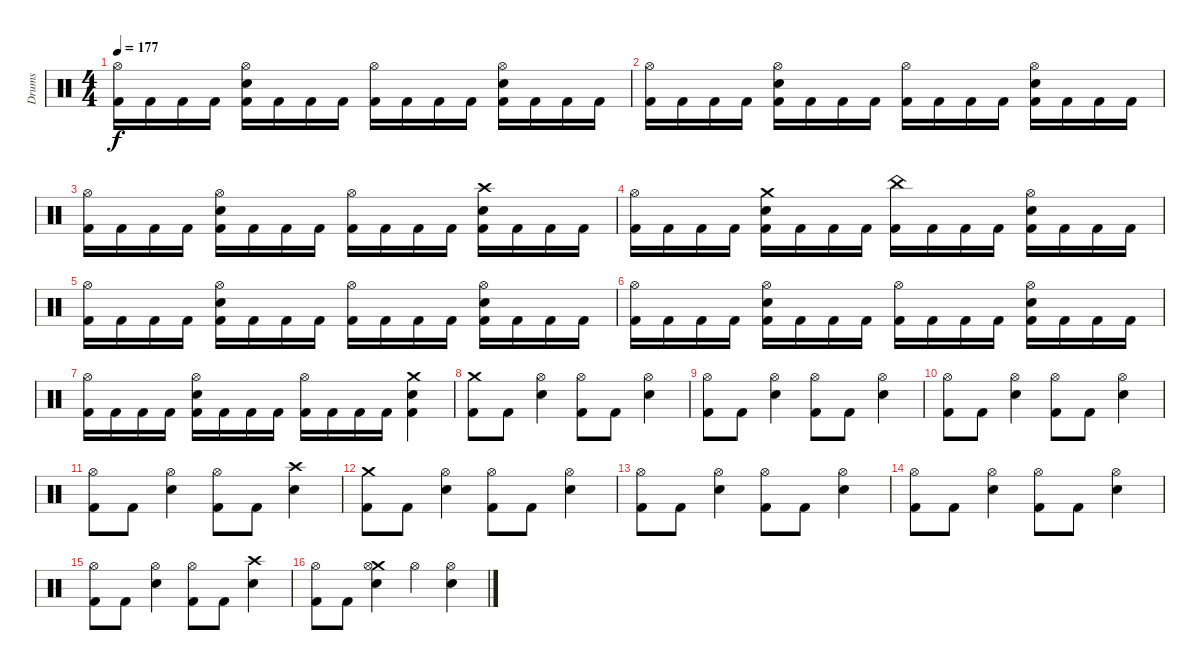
\track ("Drums" "Drums") {instrument percussion}
\staff {score}
\articulation defaults
\ts (4 4)
\tempo 177
\clef neutral
\ks c
("Hi-Hat (open)" "Kick (hit) 2").16{dy f} "Kick (hit) 2".16 "Kick (hit) 2".16 "Kick (hit) 2".16 ("Hi-Hat (open)" "Snare (hit) 2" "Kick (hit) 2").16 "Kick (hit) 2".16 "Kick (hit) 2".16 "Kick (hit) 2".16 ("Hi-Hat (open)" "Kick (hit) 2").16 "Kick (hit) 2".16 "Kick (hit) 2".16 "Kick (hit) 2".16 ("Hi-Hat (open)" "Snare (hit) 2" "Kick (hit) 2").16 "Kick (hit) 2".16 "Kick (hit) 2".16 "Kick (hit) 2".16 |
("Hi-Hat (open)" "Kick (hit) 2").16 "Kick (hit) 2".16 "Kick (hit) 2".16 "Kick (hit) 2".16 ("Hi-Hat (open)" "Snare (hit) 2" "Kick (hit) 2").16 "Kick (hit) 2".16 "Kick (hit) 2".16 "Kick (hit) 2".16 ("Hi-Hat (open)" "Kick (hit) 2").16 "Kick (hit) 2".16 "Kick (hit) 2".16 "Kick (hit) 2".16 ("Hi-Hat (open)" "Snare (hit) 2" "Kick (hit) 2").16 "Kick (hit) 2".16 "Kick (hit) 2".16 "Kick (hit) 2".16 |
("Hi-Hat (open)" "Kick (hit) 2").16 "Kick (hit) 2".16 "Kick (hit) 2".16 "Kick (hit) 2".16 ("Hi-Hat (open)" "Snare (hit) 2" "Kick (hit) 2").16 "Kick (hit) 2".16 "Kick (hit) 2".16 "Kick (hit) 2".16 ("Hi-Hat (open)" "Kick (hit) 2").16 "Kick (hit) 2".16 "Kick (hit) 2".16 "Kick (hit) 2".16 ("Crash high (hit)" "Snare (hit) 2" "Kick (hit) 2").16 "Kick (hit) 2".16 "Kick (hit) 2".16 "Kick (hit) 2".16 |
("Hi-Hat (open)" "Kick (hit) 2").16 "Kick (hit) 2".16 "Kick (hit) 2".16 "Kick (hit) 2".16 ("Crash medium (hit)" "Snare (hit) 2" "Kick (hit) 2").16 "Kick (hit) 2".16 "Kick (hit) 2".16 "Kick (hit) 2".16 ("China (hit)" "Kick (hit) 2").16 "Kick (hit) 2".16 "Kick (hit) 2".16 "Kick (hit) 2".16 ("Hi-Hat (open)" "Snare (hit) 2" "Kick (hit) 2").16 "Kick (hit) 2".16 "Kick (hit) 2".16 "Kick (hit) 2".16 |
("Hi-Hat (open)" "Kick (hit) 2").16 "Kick (hit) 2".16 "Kick (hit) 2".16 "Kick (hit) 2".16 ("Hi-Hat (open)" "Snare (hit) 2" "Kick (hit) 2").16 "Kick (hit) 2".16 "Kick (hit) 2".16 "Kick (hit) 2".16 ("Hi-Hat (open)" "Kick (hit) 2").16 "Kick (hit) 2".16 "Kick (hit) 2".16 "Kick (hit) 2".16 ("Hi-Hat (open)" "Snare (hit) 2" "Kick (hit) 2").16 "Kick (hit) 2".16 "Kick (hit) 2".16 "Kick (hit) 2".16 |
("Hi-Hat (open)" "Kick (hit) 2").16 "Kick (hit) 2".16 "Kick (hit) 2".16 "Kick (hit) 2".16 ("Hi-Hat (open)" "Snare (hit) 2" "Kick (hit) 2").16 "Kick (hit) 2".16 "Kick (hit) 2".16 "Kick (hit) 2".16 ("Hi-Hat (open)" "Kick (hit) 2").16 "Kick (hit) 2".16 "Kick (hit) 2".16 "Kick (hit) 2".16 ("Hi-Hat (open)" "Snare (hit) 2" "Kick (hit) 2").16 "Kick (hit) 2".16 "Kick (hit) 2".16 "Kick (hit) 2".16 |
("Hi-Hat (open)" "Kick (hit) 2").16 "Kick (hit) 2".16 "Kick (hit) 2".16 "Kick (hit) 2".16 ("Hi-Hat (open)" "Snare (hit) 2" "Kick (hit) 2").16 "Kick (hit) 2".16 "Kick (hit) 2".16 "Kick (hit) 2".16 ("Hi-Hat (open)" "Kick (hit) 2").16 "Kick (hit) 2".16 "Kick (hit) 2".16 "Kick (hit) 2".16 ("Crash medium (hit)" "Snare (hit) 2" "Kick (hit) 2").4 |
("Crash medium (hit)" "Kick (hit) 2").8 "Kick (hit) 2".8 ("Hi-Hat (open)" "Snare (hit) 2").4 ("Hi-Hat (open)" "Kick (hit) 2").8 "Kick (hit) 2".8 ("Hi-Hat (open)" "Snare (hit) 2").4 |
("Hi-Hat (open)" "Kick (hit) 2").8 "Kick (hit) 2".8 ("Hi-Hat (open)" "Snare (hit) 2").4 ("Hi-Hat (open)" "Kick (hit) 2").8 "Kick (hit) 2".8 ("Hi-Hat (open)" "Snare (hit) 2").4 |
("Hi-Hat (open)" "Kick (hit) 2").8 "Kick (hit) 2".8 ("Hi-Hat (open)" "Snare (hit) 2").4 ("Hi-Hat (open)" "Kick (hit) 2").8 "Kick (hit) 2".8 ("Hi-Hat (open)" "Snare (hit) 2").4 |
("Hi-Hat (open)" "Kick (hit) 2").8 "Kick (hit) 2".8 ("Hi-Hat (open)" "Snare (hit) 2").4 ("Hi-Hat (open)" "Kick (hit) 2").8 "Kick (hit) 2".8 ("Crash high (hit)" "Snare (hit) 2").4 |
("Crash medium (hit)" "Kick (hit) 2").8 "Kick (hit) 2".8 ("Hi-Hat (open)" "Snare (hit) 2").4 ("Hi-Hat (open)" "Kick (hit) 2").8 "Kick (hit) 2".8 ("Hi-Hat (open)" "Snare (hit) 2").4 |
("Hi-Hat (open)" "Kick (hit) 2").8 "Kick (hit) 2".8 ("Hi-Hat (open)" "Snare (hit) 2").4 ("Hi-Hat (open)" "Kick (hit) 2").8 "Kick (hit) 2".8 ("Hi-Hat (open)" "Snare (hit) 2").4 |
("Hi-Hat (open)" "Kick (hit) 2").8 "Kick (hit) 2".8 ("Hi-Hat (open)" "Snare (hit) 2").4 ("Hi-Hat (open)" "Kick (hit) 2").8 "Kick (hit) 2".8 ("Hi-Hat (open)" "Snare (hit) 2").4 |
("Hi-Hat (open)" "Kick (hit) 2").8 "Kick (hit) 2".8 ("Hi-Hat (open)" "Snare (hit) 2").4 ("Hi-Hat (open)" "Kick (hit) 2").8 "Kick (hit) 2".8 ("Crash high (hit)" "Snare (hit) 2").4 |
("Hi-Hat (open)" "Kick (hit) 2").8 "Kick (hit) 2".8 ("Crash medium (hit)" "Hi-Hat (open)" "Snare (hit) 2").4 "Hi-Hat (open)".4 ("Hi-Hat (open)" "Snare (hit) 2").4
